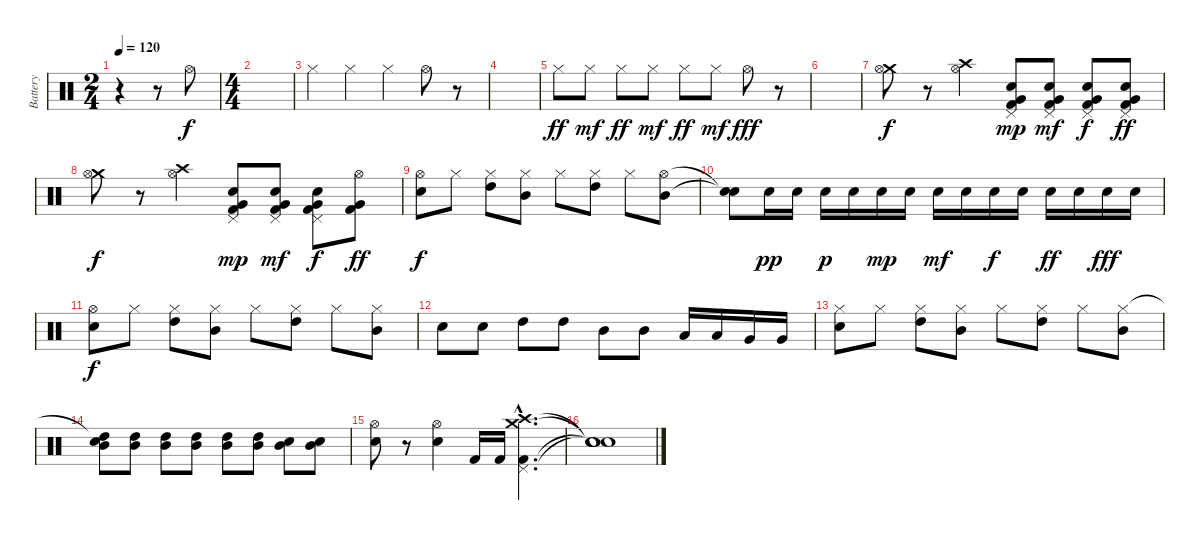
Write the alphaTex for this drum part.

\track ("Battery" "Battery") {instrument percussion}
\staff {score}
\articulation defaults
\ts (2 4)
\tempo 120
\clef neutral
\ks c
r.4{dy f} r.8 "Hi-Hat (open)".8 |
\ts (4 4)
|
"Hi-Hat (closed)".4 "Hi-Hat (closed)".4 "Hi-Hat (closed)".4 "Hi-Hat (open)".8 r.8 |
|
"Hi-Hat (closed)".8{dy ff} "Hi-Hat (closed)".8{dy mf} "Hi-Hat (closed)".8{dy ff} "Hi-Hat (closed)".8{dy mf} "Hi-Hat (closed)".8{dy ff} "Hi-Hat (closed)".8{dy mf} "Hi-Hat (open)".8{dy fff} r.8 |
|
("Crash medium (hit)" "Hi-Hat (open)").8{dy f} r.8 ("Crash high (hit)" "Hi-Hat (open)").4 ("Pedal Hi-Hat (hit)" "Electric Snare (hit)" "Very Low Tom (hit)" "Kick (hit) 2").8{dy mp} ("Pedal Hi-Hat (hit)" "Electric Snare (hit)" "Very Low Tom (hit)" "Kick (hit) 2").8{dy mf} ("Pedal Hi-Hat (hit)" "Electric Snare (hit)" "Very Low Tom (hit)" "Kick (hit) 2").8{dy f} ("Pedal Hi-Hat (hit)" "Electric Snare (hit)" "Very Low Tom (hit)" "Kick (hit) 2").8{dy ff} |
("Crash medium (hit)" "Hi-Hat (open)").8{dy f} r.8 ("Crash high (hit)" "Hi-Hat (open)").4 ("Pedal Hi-Hat (hit)" "Electric Snare (hit)" "Very Low Tom (hit)" "Kick (hit) 2").8{dy mp} ("Pedal Hi-Hat (hit)" "Electric Snare (hit)" "Very Low Tom (hit)" "Kick (hit) 2").8{dy mf} ("Pedal Hi-Hat (hit)" "Electric Snare (hit)" "Very Low Tom (hit)" "Kick (hit) 2").8{dy f} ("Hi-Hat (open)" "Very Low Tom (hit)" "Kick (hit) 2").8{dy ff} |
("Hi-Hat (open)" "Electric Snare (hit)").8{dy f} "Hi-Hat (closed)".8 ("Hi-Hat (closed)" "High Tom (hit)").8 ("Hi-Hat (closed)" "Mid Tom (hit)").8 "Hi-Hat (closed)".8 ("Hi-Hat (closed)" "High Tom (hit)").8 "Hi-Hat (closed)".8 ("Hi-Hat (open)" "Mid Tom (hit)").8 |
("Snare (hit)"{t} "Snare (hit)"{t}).8 "Electric Snare (hit)".16{dy pp} "Electric Snare (hit)".16 "Electric Snare (hit)".16{dy p} "Electric Snare (hit)".16 "Electric Snare (hit)".16{dy mp} "Electric Snare (hit)".16 "Electric Snare (hit)".16{dy mf} "Electric Snare (hit)".16 "Electric Snare (hit)".16{dy f} "Electric Snare (hit)".16 "Electric Snare (hit)".16{dy ff} "Electric Snare (hit)".16 "Electric Snare (hit)".16{dy fff} "Electric Snare (hit)".16 |
("Hi-Hat (open)" "Electric Snare (hit)").8{dy f} "Hi-Hat (closed)".8 ("Hi-Hat (closed)" "High Tom (hit)").8 ("Hi-Hat (closed)" "Mid Tom (hit)").8 "Hi-Hat (closed)".8 ("Hi-Hat (closed)" "High Tom (hit)").8 "Hi-Hat (closed)".8 ("Hi-Hat (closed)" "Mid Tom (hit)").8 |
"Electric Snare (hit)".8 "Electric Snare (hit)".8 "High Tom (hit)".8 "High Tom (hit)".8 "Mid Tom (hit)".8 "Mid Tom (hit)".8 "Low Tom (hit)".16 "Low Tom (hit)".16 "Very Low Tom (hit)".16 "Very Low Tom (hit)".16 |
("Hi-Hat (closed)" "Electric Snare (hit)").8 "Hi-Hat (closed)".8 ("Hi-Hat (closed)" "High Tom (hit)").8 ("Hi-Hat (closed)" "Mid Tom (hit)").8 "Hi-Hat (closed)".8 ("Hi-Hat (closed)" "High Tom (hit)").8 "Hi-Hat (closed)".8 ("Hi-Hat (closed)" "Mid Tom (hit)").8 |
("High Tom (hit)"{t} "Mid Tom (hit)" "Snare (hit)").8 ("High Tom (hit)" "Mid Tom (hit)").8 ("High Tom (hit)" "Mid Tom (hit)").8 ("High Tom (hit)" "Mid Tom (hit)").8 ("High Tom (hit)" "Mid Tom (hit)").8 ("High Tom (hit)" "Mid Tom (hit)").8 ("Electric Snare (hit)" "Mid Tom (hit)").8 ("Electric Snare (hit)" "Mid Tom (hit)").8 |
("Hi-Hat (open)" "Electric Snare (hit)").8 r.8 ("Hi-Hat (open)" "Electric Snare (hit)").4 "Kick (hit) 2".16 "Kick (hit) 2".16 ("Crash medium (hit)"{hac} "Crash high (hit)"{hac} "Pedal Hi-Hat (hit)"{hac} "Kick (hit) 2"{hac}).4{d} |
("Snare (hit)"{t} "Snare (hit)"{t} "Snare (hit)"{t} "Snare (hit)"{t}).1
